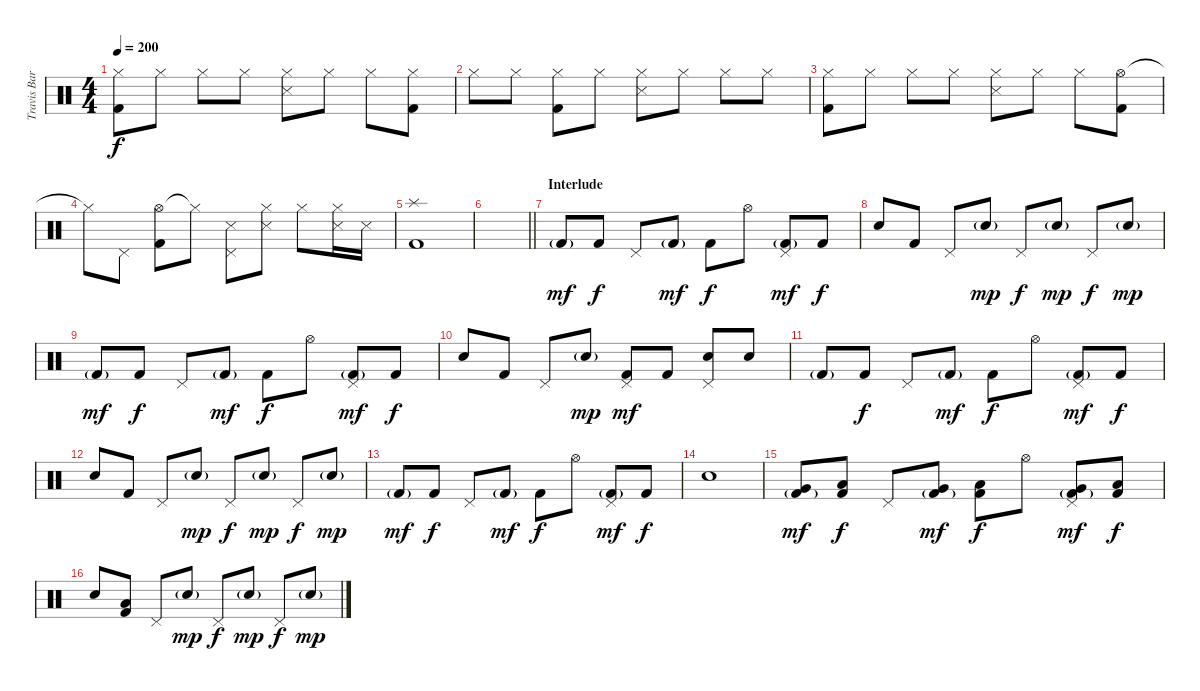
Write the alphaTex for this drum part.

\track ("Travis Barker - Drums" "Travis Bar") {instrument percussion}
\staff {score}
\articulation defaults
\ts (4 4)
\tempo 200
\clef neutral
\ks c
("Hi-Hat (closed)" "Kick (hit) 2").8{dy f} "Hi-Hat (closed)".8 "Hi-Hat (closed)".8 "Hi-Hat (closed)".8 ("Hi-Hat (closed)" "Snare (side stick) 3").8 "Hi-Hat (closed)".8 "Hi-Hat (closed)".8 ("Hi-Hat (closed)" "Kick (hit) 2").8 |
"Hi-Hat (closed)".8 "Hi-Hat (closed)".8 ("Hi-Hat (closed)" "Kick (hit) 2").8 "Hi-Hat (closed)".8 ("Hi-Hat (closed)" "Snare (side stick) 3").8 "Hi-Hat (closed)".8 "Hi-Hat (closed)".8 "Hi-Hat (closed)".8 |
("Hi-Hat (closed)" "Kick (hit) 2").8 "Hi-Hat (closed)".8 "Hi-Hat (closed)".8 "Hi-Hat (closed)".8 ("Hi-Hat (closed)" "Snare (side stick) 3").8 "Hi-Hat (closed)".8 "Hi-Hat (closed)".8 ("Hi-Hat (open)" "Kick (hit) 2").8 |
"Hi-Hat (closed)"{t}.8 "Pedal Hi-Hat (hit)".8 ("Hi-Hat (open)" "Kick (hit) 2").8 "Hi-Hat (closed)"{t}.8 ("Pedal Hi-Hat (hit)" "Snare (side stick) 3").8 ("Hi-Hat (closed)" "Snare (side stick) 3").8 "Hi-Hat (closed)".8 ("Hi-Hat (closed)" "Snare (side stick) 3").16 "Snare (side stick) 3".16 |
("Splash (hit)" "Kick (hit) 2").1 |
\barLineRight lightlight
|
\section ("" "Interlude")
"Kick (hit) 2"{g}.8{dy mf} "Kick (hit) 2".8{dy f} "Pedal Hi-Hat (hit)".8 "Kick (hit) 2"{g}.8{dy mf} "Kick (hit) 2".8{dy f} "Hi-Hat (open)".8 ("Pedal Hi-Hat (hit)" "Kick (hit) 2"{g}).8{dy mf} "Kick (hit) 2".8{dy f} |
"Electric Snare (hit)".8 "Kick (hit) 2".8 "Pedal Hi-Hat (hit)".8 "Electric Snare (hit)"{g}.8{dy mp} "Pedal Hi-Hat (hit)".8{dy f} "Electric Snare (hit)"{g}.8{dy mp} "Pedal Hi-Hat (hit)".8{dy f} "Electric Snare (hit)"{g}.8{dy mp} |
"Kick (hit) 2"{g}.8{dy mf} "Kick (hit) 2".8{dy f} "Pedal Hi-Hat (hit)".8 "Kick (hit) 2"{g}.8{dy mf} "Kick (hit) 2".8{dy f} "Hi-Hat (open)".8 ("Pedal Hi-Hat (hit)" "Kick (hit) 2"{g}).8{dy mf} "Kick (hit) 2".8{dy f} |
"Electric Snare (hit)".8 "Kick (hit) 2".8 "Pedal Hi-Hat (hit)".8 "Electric Snare (hit)"{g}.8{dy mp} ("Pedal Hi-Hat (hit)" "Kick (hit) 2").8{dy mf} "Kick (hit) 2".8 ("Pedal Hi-Hat (hit)" "Electric Snare (hit)").8 "Electric Snare (hit)".8 |
"Kick (hit) 2"{g}.8 "Kick (hit) 2".8{dy f} "Pedal Hi-Hat (hit)".8 "Kick (hit) 2"{g}.8{dy mf} "Kick (hit) 2".8{dy f} "Hi-Hat (open)".8 ("Pedal Hi-Hat (hit)" "Kick (hit) 2"{g}).8{dy mf} "Kick (hit) 2".8{dy f} |
"Electric Snare (hit)".8 "Kick (hit) 2".8 "Pedal Hi-Hat (hit)".8 "Electric Snare (hit)"{g}.8{dy mp} "Pedal Hi-Hat (hit)".8{dy f} "Electric Snare (hit)"{g}.8{dy mp} "Pedal Hi-Hat (hit)".8{dy f} "Electric Snare (hit)"{g}.8{dy mp} |
"Kick (hit) 2"{g}.8{dy mf} "Kick (hit) 2".8{dy f} "Pedal Hi-Hat (hit)".8 "Kick (hit) 2"{g}.8{dy mf} "Kick (hit) 2".8{dy f} "Hi-Hat (open)".8 ("Pedal Hi-Hat (hit)" "Kick (hit) 2"{g}).8{dy mf} "Kick (hit) 2".8{dy f} |
"Electric Snare (hit)".1 |
("Very Low Tom (hit)" "Kick (hit) 2"{g}).8{dy mf} ("Low Floor Tom (hit)" "Kick (hit) 2").8{dy f} "Pedal Hi-Hat (hit)".8 ("Very Low Tom (hit)" "Kick (hit) 2"{g}).8{dy mf} ("Low Floor Tom (hit)" "Kick (hit) 2").8{dy f} "Hi-Hat (open)".8 ("Pedal Hi-Hat (hit)" "Very Low Tom (hit)" "Kick (hit) 2"{g}).8{dy mf} ("Low Floor Tom (hit)" "Kick (hit) 2").8{dy f} |
"Electric Snare (hit)".8 ("Low Floor Tom (hit)" "Kick (hit) 2").8 "Pedal Hi-Hat (hit)".8 "Electric Snare (hit)"{g}.8{dy mp} "Pedal Hi-Hat (hit)".8{dy f} "Electric Snare (hit)"{g}.8{dy mp} "Pedal Hi-Hat (hit)".8{dy f} "Electric Snare (hit)"{g}.8{dy mp}
